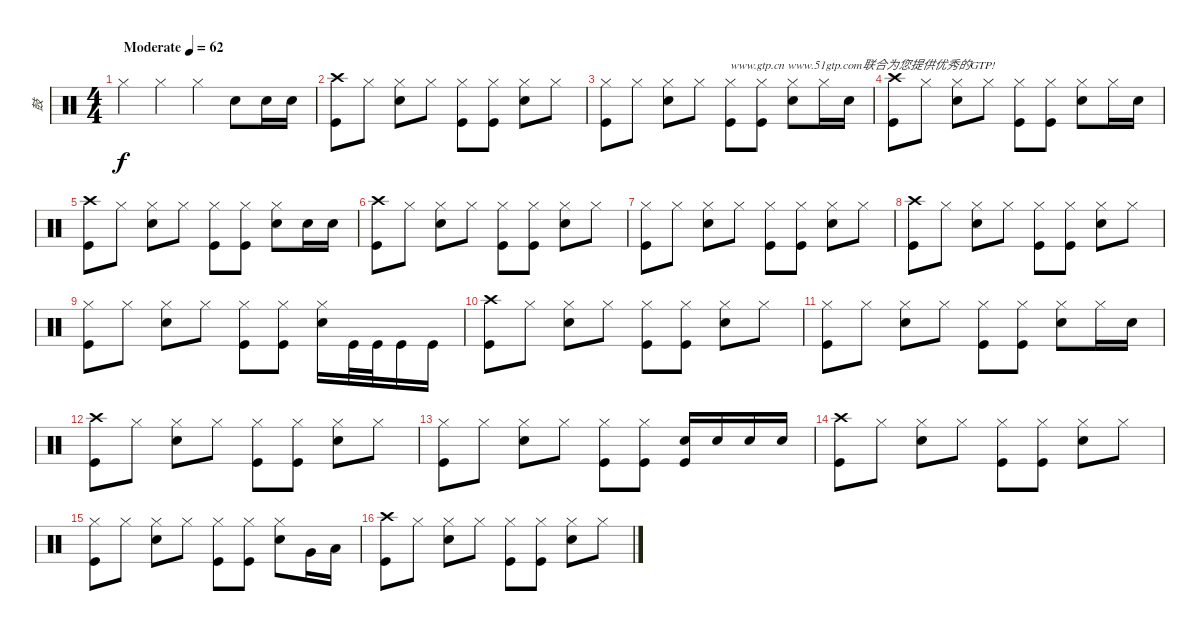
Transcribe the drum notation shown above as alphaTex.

\track ("鼓" "鼓") {instrument percussion}
\staff {score}
\articulation defaults
\ts (4 4)
\tempo (62 "Moderate")
\clef neutral
\ks c "Hi-Hat (closed)".4{dy f} "Hi-Hat (closed)".4 "Hi-Hat (closed)".4 "Snare (hit) 2".8 "Snare (hit) 2".16 "Snare (hit) 2".16
|
("Kick (hit)" "Crash high (hit)").8 "Hi-Hat (closed)".8 ("Snare (hit) 2" "Hi-Hat (closed)").8 "Hi-Hat (closed)".8 ("Kick (hit)" "Hi-Hat (closed)").8 ("Kick (hit)" "Hi-Hat (closed)").8 ("Snare (hit) 2" "Hi-Hat (closed)").8 "Hi-Hat (closed)".8 |
("Kick (hit)" "Hi-Hat (closed)").8 "Hi-Hat (closed)".8 ("Snare (hit) 2" "Hi-Hat (closed)").8 "Hi-Hat (closed)".8 ("Kick (hit)" "Hi-Hat (closed)").8{txt "www.gtp.cn www.51gtp.com联合为您提供优秀的GTP!"} ("Kick (hit)" "Hi-Hat (closed)").8 ("Snare (hit) 2" "Hi-Hat (closed)").8 "Hi-Hat (closed)".16 "Snare (hit) 2".16 |
("Kick (hit)" "Crash high (hit)").8 "Hi-Hat (closed)".8 ("Snare (hit) 2" "Hi-Hat (closed)").8 "Hi-Hat (closed)".8 ("Kick (hit)" "Hi-Hat (closed)").8 ("Kick (hit)" "Hi-Hat (closed)").8 ("Snare (hit) 2" "Hi-Hat (closed)").8 "Hi-Hat (closed)".16 "Snare (hit) 2".16 |
("Kick (hit)" "Crash high (hit)").8 "Hi-Hat (closed)".8 ("Snare (hit) 2" "Hi-Hat (closed)").8 "Hi-Hat (closed)".8 ("Kick (hit)" "Hi-Hat (closed)").8 ("Kick (hit)" "Hi-Hat (closed)").8 ("Snare (hit) 2" "Hi-Hat (closed)").8 "Snare (hit) 2".16 "Snare (hit) 2".16 |
("Kick (hit)" "Crash high (hit)").8 "Hi-Hat (closed)".8 ("Snare (hit) 2" "Hi-Hat (closed)").8 "Hi-Hat (closed)".8 ("Kick (hit)" "Hi-Hat (closed)").8 ("Kick (hit)" "Hi-Hat (closed)").8 ("Snare (hit) 2" "Hi-Hat (closed)").8 "Hi-Hat (closed)".8 |
("Kick (hit)" "Hi-Hat (closed)").8 "Hi-Hat (closed)".8 ("Snare (hit) 2" "Hi-Hat (closed)").8 "Hi-Hat (closed)".8 ("Kick (hit)" "Hi-Hat (closed)").8 ("Kick (hit)" "Hi-Hat (closed)").8 ("Snare (hit) 2" "Hi-Hat (closed)").8 "Hi-Hat (closed)".8 |
("Kick (hit)" "Crash high (hit)").8 "Hi-Hat (closed)".8 ("Snare (hit) 2" "Hi-Hat (closed)").8 "Hi-Hat (closed)".8 ("Kick (hit)" "Hi-Hat (closed)").8 ("Kick (hit)" "Hi-Hat (closed)").8 ("Snare (hit) 2" "Hi-Hat (closed)").8 "Hi-Hat (closed)".8 |
("Kick (hit)" "Hi-Hat (closed)").8 "Hi-Hat (closed)".8 ("Snare (hit) 2" "Hi-Hat (closed)").8 "Hi-Hat (closed)".8 ("Kick (hit)" "Hi-Hat (closed)").8 ("Kick (hit)" "Hi-Hat (closed)").8 ("Snare (hit) 2" "Hi-Hat (closed)").16 "Kick (hit)".32 "Kick (hit)".32 "Kick (hit)".16 "Kick (hit)".16 |
("Kick (hit)" "Crash high (hit)").8 "Hi-Hat (closed)".8 ("Snare (hit) 2" "Hi-Hat (closed)").8 "Hi-Hat (closed)".8 ("Kick (hit)" "Hi-Hat (closed)").8 ("Kick (hit)" "Hi-Hat (closed)").8 ("Snare (hit) 2" "Hi-Hat (closed)").8 "Hi-Hat (closed)".8 |
("Kick (hit)" "Hi-Hat (closed)").8 "Hi-Hat (closed)".8 ("Snare (hit) 2" "Hi-Hat (closed)").8 "Hi-Hat (closed)".8 ("Kick (hit)" "Hi-Hat (closed)").8 ("Kick (hit)" "Hi-Hat (closed)").8 ("Snare (hit) 2" "Hi-Hat (closed)").8 "Hi-Hat (closed)".16 "Snare (hit) 2".16 |
("Kick (hit)" "Crash high (hit)").8 "Hi-Hat (closed)".8 ("Snare (hit) 2" "Hi-Hat (closed)").8 "Hi-Hat (closed)".8 ("Kick (hit)" "Hi-Hat (closed)").8 ("Kick (hit)" "Hi-Hat (closed)").8 ("Snare (hit) 2" "Hi-Hat (closed)").8 "Hi-Hat (closed)".8 |
("Kick (hit)" "Hi-Hat (closed)").8 "Hi-Hat (closed)".8 ("Snare (hit) 2" "Hi-Hat (closed)").8 "Hi-Hat (closed)".8 ("Kick (hit)" "Hi-Hat (closed)").8 ("Kick (hit)" "Hi-Hat (closed)").8 ("Snare (hit) 2" "Kick (hit)").16 "Snare (hit) 2".16 "Snare (hit) 2".16 "Snare (hit) 2".16 |
("Kick (hit)" "Crash high (hit)").8 "Hi-Hat (closed)".8 ("Snare (hit) 2" "Hi-Hat (closed)").8 "Hi-Hat (closed)".8 ("Kick (hit)" "Hi-Hat (closed)").8 ("Kick (hit)" "Hi-Hat (closed)").8 ("Snare (hit) 2" "Hi-Hat (closed)").8 "Hi-Hat (closed)".8 |
("Kick (hit)" "Hi-Hat (closed)").8 "Hi-Hat (closed)".8 ("Snare (hit) 2" "Hi-Hat (closed)").8 "Hi-Hat (closed)".8 ("Kick (hit)" "Hi-Hat (closed)").8 ("Kick (hit)" "Hi-Hat (closed)").8 ("Snare (hit) 2" "Hi-Hat (closed)").8 "Very Low Tom (hit)".16 "Low Floor Tom (hit)".16 |
("Kick (hit)" "Crash high (hit)").8 "Hi-Hat (closed)".8 ("Snare (hit) 2" "Hi-Hat (closed)").8 "Hi-Hat (closed)".8 ("Kick (hit)" "Hi-Hat (closed)").8 ("Kick (hit)" "Hi-Hat (closed)").8 ("Snare (hit) 2" "Hi-Hat (closed)").8 "Hi-Hat (closed)".8
